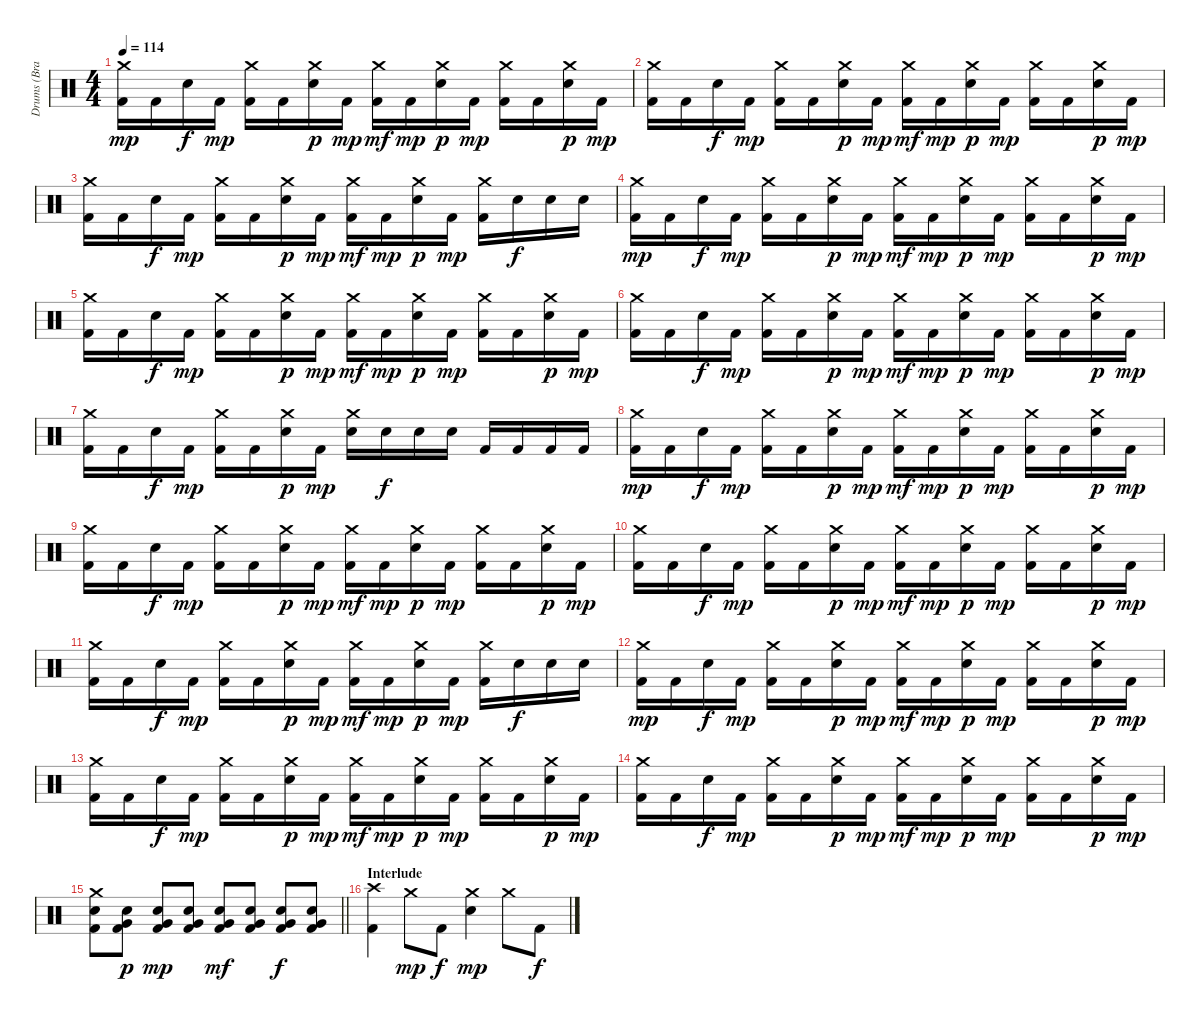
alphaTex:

\track ("Drums (Brandon Saller)" "Drums (Bra") {instrument percussion}
\staff {score}
\articulation defaults
\ts (4 4)
\tempo 114
\clef neutral
\ks c
("Crash medium (hit)" "Kick (hit) 2").16{dy mp} "Kick (hit) 2".16 "Electric Snare (hit)".16{dy f} "Kick (hit) 2".16{dy mp} ("Crash medium (hit)" "Kick (hit) 2").16 "Kick (hit) 2".16 ("Crash medium (hit)" "Electric Snare (hit)").16{dy p} "Kick (hit) 2".16{dy mp} ("Crash medium (hit)" "Kick (hit) 2").16{dy mf} "Kick (hit) 2".16{dy mp} ("Crash medium (hit)" "Electric Snare (hit)").16{dy p} "Kick (hit) 2".16{dy mp} ("Crash medium (hit)" "Kick (hit) 2").16 "Kick (hit) 2".16 ("Crash medium (hit)" "Electric Snare (hit)").16{dy p} "Kick (hit) 2".16{dy mp} |
("Crash medium (hit)" "Kick (hit) 2").16 "Kick (hit) 2".16 "Electric Snare (hit)".16{dy f} "Kick (hit) 2".16{dy mp} ("Crash medium (hit)" "Kick (hit) 2").16 "Kick (hit) 2".16 ("Crash medium (hit)" "Electric Snare (hit)").16{dy p} "Kick (hit) 2".16{dy mp} ("Crash medium (hit)" "Kick (hit) 2").16{dy mf} "Kick (hit) 2".16{dy mp} ("Crash medium (hit)" "Electric Snare (hit)").16{dy p} "Kick (hit) 2".16{dy mp} ("Crash medium (hit)" "Kick (hit) 2").16 "Kick (hit) 2".16 ("Crash medium (hit)" "Electric Snare (hit)").16{dy p} "Kick (hit) 2".16{dy mp} |
("Crash medium (hit)" "Kick (hit) 2").16 "Kick (hit) 2".16 "Electric Snare (hit)".16{dy f} "Kick (hit) 2".16{dy mp} ("Crash medium (hit)" "Kick (hit) 2").16 "Kick (hit) 2".16 ("Crash medium (hit)" "Electric Snare (hit)").16{dy p} "Kick (hit) 2".16{dy mp} ("Crash medium (hit)" "Kick (hit) 2").16{dy mf} "Kick (hit) 2".16{dy mp} ("Crash medium (hit)" "Electric Snare (hit)").16{dy p} "Kick (hit) 2".16{dy mp} ("Crash medium (hit)" "Kick (hit) 2").16 "Electric Snare (hit)".16{dy f} "Electric Snare (hit)".16 "Electric Snare (hit)".16 |
("Crash medium (hit)" "Kick (hit) 2").16{dy mp} "Kick (hit) 2".16 "Electric Snare (hit)".16{dy f} "Kick (hit) 2".16{dy mp} ("Crash medium (hit)" "Kick (hit) 2").16 "Kick (hit) 2".16 ("Crash medium (hit)" "Electric Snare (hit)").16{dy p} "Kick (hit) 2".16{dy mp} ("Crash medium (hit)" "Kick (hit) 2").16{dy mf} "Kick (hit) 2".16{dy mp} ("Crash medium (hit)" "Electric Snare (hit)").16{dy p} "Kick (hit) 2".16{dy mp} ("Crash medium (hit)" "Kick (hit) 2").16 "Kick (hit) 2".16 ("Crash medium (hit)" "Electric Snare (hit)").16{dy p} "Kick (hit) 2".16{dy mp} |
("Crash medium (hit)" "Kick (hit) 2").16 "Kick (hit) 2".16 "Electric Snare (hit)".16{dy f} "Kick (hit) 2".16{dy mp} ("Crash medium (hit)" "Kick (hit) 2").16 "Kick (hit) 2".16 ("Crash medium (hit)" "Electric Snare (hit)").16{dy p} "Kick (hit) 2".16{dy mp} ("Crash medium (hit)" "Kick (hit) 2").16{dy mf} "Kick (hit) 2".16{dy mp} ("Crash medium (hit)" "Electric Snare (hit)").16{dy p} "Kick (hit) 2".16{dy mp} ("Crash medium (hit)" "Kick (hit) 2").16 "Kick (hit) 2".16 ("Crash medium (hit)" "Electric Snare (hit)").16{dy p} "Kick (hit) 2".16{dy mp} |
("Crash medium (hit)" "Kick (hit) 2").16 "Kick (hit) 2".16 "Electric Snare (hit)".16{dy f} "Kick (hit) 2".16{dy mp} ("Crash medium (hit)" "Kick (hit) 2").16 "Kick (hit) 2".16 ("Crash medium (hit)" "Electric Snare (hit)").16{dy p} "Kick (hit) 2".16{dy mp} ("Crash medium (hit)" "Kick (hit) 2").16{dy mf} "Kick (hit) 2".16{dy mp} ("Crash medium (hit)" "Electric Snare (hit)").16{dy p} "Kick (hit) 2".16{dy mp} ("Crash medium (hit)" "Kick (hit) 2").16 "Kick (hit) 2".16 ("Crash medium (hit)" "Electric Snare (hit)").16{dy p} "Kick (hit) 2".16{dy mp} |
("Crash medium (hit)" "Kick (hit) 2").16 "Kick (hit) 2".16 "Electric Snare (hit)".16{dy f} "Kick (hit) 2".16{dy mp} ("Crash medium (hit)" "Kick (hit) 2").16 "Kick (hit) 2".16 ("Crash medium (hit)" "Electric Snare (hit)").16{dy p} "Kick (hit) 2".16{dy mp} ("Crash medium (hit)" "Electric Snare (hit)").16 "Electric Snare (hit)".16{dy f} "Electric Snare (hit)".16 "Electric Snare (hit)".16 "Kick (hit) 2".16 "Kick (hit) 2".16 "Kick (hit) 2".16 "Kick (hit) 2".16 |
("Crash medium (hit)" "Kick (hit) 2").16{dy mp} "Kick (hit) 2".16 "Electric Snare (hit)".16{dy f} "Kick (hit) 2".16{dy mp} ("Crash medium (hit)" "Kick (hit) 2").16 "Kick (hit) 2".16 ("Crash medium (hit)" "Electric Snare (hit)").16{dy p} "Kick (hit) 2".16{dy mp} ("Crash medium (hit)" "Kick (hit) 2").16{dy mf} "Kick (hit) 2".16{dy mp} ("Crash medium (hit)" "Electric Snare (hit)").16{dy p} "Kick (hit) 2".16{dy mp} ("Crash medium (hit)" "Kick (hit) 2").16 "Kick (hit) 2".16 ("Crash medium (hit)" "Electric Snare (hit)").16{dy p} "Kick (hit) 2".16{dy mp} |
("Crash medium (hit)" "Kick (hit) 2").16 "Kick (hit) 2".16 "Electric Snare (hit)".16{dy f} "Kick (hit) 2".16{dy mp} ("Crash medium (hit)" "Kick (hit) 2").16 "Kick (hit) 2".16 ("Crash medium (hit)" "Electric Snare (hit)").16{dy p} "Kick (hit) 2".16{dy mp} ("Crash medium (hit)" "Kick (hit) 2").16{dy mf} "Kick (hit) 2".16{dy mp} ("Crash medium (hit)" "Electric Snare (hit)").16{dy p} "Kick (hit) 2".16{dy mp} ("Crash medium (hit)" "Kick (hit) 2").16 "Kick (hit) 2".16 ("Crash medium (hit)" "Electric Snare (hit)").16{dy p} "Kick (hit) 2".16{dy mp} |
("Crash medium (hit)" "Kick (hit) 2").16 "Kick (hit) 2".16 "Electric Snare (hit)".16{dy f} "Kick (hit) 2".16{dy mp} ("Crash medium (hit)" "Kick (hit) 2").16 "Kick (hit) 2".16 ("Crash medium (hit)" "Electric Snare (hit)").16{dy p} "Kick (hit) 2".16{dy mp} ("Crash medium (hit)" "Kick (hit) 2").16{dy mf} "Kick (hit) 2".16{dy mp} ("Crash medium (hit)" "Electric Snare (hit)").16{dy p} "Kick (hit) 2".16{dy mp} ("Crash medium (hit)" "Kick (hit) 2").16 "Kick (hit) 2".16 ("Crash medium (hit)" "Electric Snare (hit)").16{dy p} "Kick (hit) 2".16{dy mp} |
("Crash medium (hit)" "Kick (hit) 2").16 "Kick (hit) 2".16 "Electric Snare (hit)".16{dy f} "Kick (hit) 2".16{dy mp} ("Crash medium (hit)" "Kick (hit) 2").16 "Kick (hit) 2".16 ("Crash medium (hit)" "Electric Snare (hit)").16{dy p} "Kick (hit) 2".16{dy mp} ("Crash medium (hit)" "Kick (hit) 2").16{dy mf} "Kick (hit) 2".16{dy mp} ("Crash medium (hit)" "Electric Snare (hit)").16{dy p} "Kick (hit) 2".16{dy mp} ("Crash medium (hit)" "Kick (hit) 2").16 "Electric Snare (hit)".16{dy f} "Electric Snare (hit)".16 "Electric Snare (hit)".16 |
("Crash medium (hit)" "Kick (hit) 2").16{dy mp} "Kick (hit) 2".16 "Electric Snare (hit)".16{dy f} "Kick (hit) 2".16{dy mp} ("Crash medium (hit)" "Kick (hit) 2").16 "Kick (hit) 2".16 ("Crash medium (hit)" "Electric Snare (hit)").16{dy p} "Kick (hit) 2".16{dy mp} ("Crash medium (hit)" "Kick (hit) 2").16{dy mf} "Kick (hit) 2".16{dy mp} ("Crash medium (hit)" "Electric Snare (hit)").16{dy p} "Kick (hit) 2".16{dy mp} ("Crash medium (hit)" "Kick (hit) 2").16 "Kick (hit) 2".16 ("Crash medium (hit)" "Electric Snare (hit)").16{dy p} "Kick (hit) 2".16{dy mp} |
("Crash medium (hit)" "Kick (hit) 2").16 "Kick (hit) 2".16 "Electric Snare (hit)".16{dy f} "Kick (hit) 2".16{dy mp} ("Crash medium (hit)" "Kick (hit) 2").16 "Kick (hit) 2".16 ("Crash medium (hit)" "Electric Snare (hit)").16{dy p} "Kick (hit) 2".16{dy mp} ("Crash medium (hit)" "Kick (hit) 2").16{dy mf} "Kick (hit) 2".16{dy mp} ("Crash medium (hit)" "Electric Snare (hit)").16{dy p} "Kick (hit) 2".16{dy mp} ("Crash medium (hit)" "Kick (hit) 2").16 "Kick (hit) 2".16 ("Crash medium (hit)" "Electric Snare (hit)").16{dy p} "Kick (hit) 2".16{dy mp} |
("Crash medium (hit)" "Kick (hit) 2").16 "Kick (hit) 2".16 "Electric Snare (hit)".16{dy f} "Kick (hit) 2".16{dy mp} ("Crash medium (hit)" "Kick (hit) 2").16 "Kick (hit) 2".16 ("Crash medium (hit)" "Electric Snare (hit)").16{dy p} "Kick (hit) 2".16{dy mp} ("Crash medium (hit)" "Kick (hit) 2").16{dy mf} "Kick (hit) 2".16{dy mp} ("Crash medium (hit)" "Electric Snare (hit)").16{dy p} "Kick (hit) 2".16{dy mp} ("Crash medium (hit)" "Kick (hit) 2").16 "Kick (hit) 2".16 ("Crash medium (hit)" "Electric Snare (hit)").16{dy p} "Kick (hit) 2".16{dy mp} |
\barLineRight lightlight
("Crash medium (hit)" "Electric Snare (hit)" "Kick (hit) 2").8 ("Electric Snare (hit)" "Very Low Tom (hit)" "Kick (hit) 2").8{dy p} ("Electric Snare (hit)" "Very Low Tom (hit)" "Kick (hit) 2").8{dy mp} ("Electric Snare (hit)" "Very Low Tom (hit)" "Kick (hit) 2").8 ("Electric Snare (hit)" "Very Low Tom (hit)" "Kick (hit) 2").8{dy mf} ("Electric Snare (hit)" "Very Low Tom (hit)" "Kick (hit) 2").8 ("Electric Snare (hit)" "Very Low Tom (hit)" "Kick (hit) 2").8{dy f} ("Electric Snare (hit)" "Very Low Tom (hit)" "Kick (hit) 2").8 |
\section ("" "Interlude")
("Crash high (hit)" "Kick (hit) 2").4 "Crash medium (hit)".8{dy mp} "Kick (hit) 2".8{dy f} ("Crash medium (hit)" "Electric Snare (hit)").4{dy mp} "Crash medium (hit)".8 "Kick (hit) 2".8{dy f}
